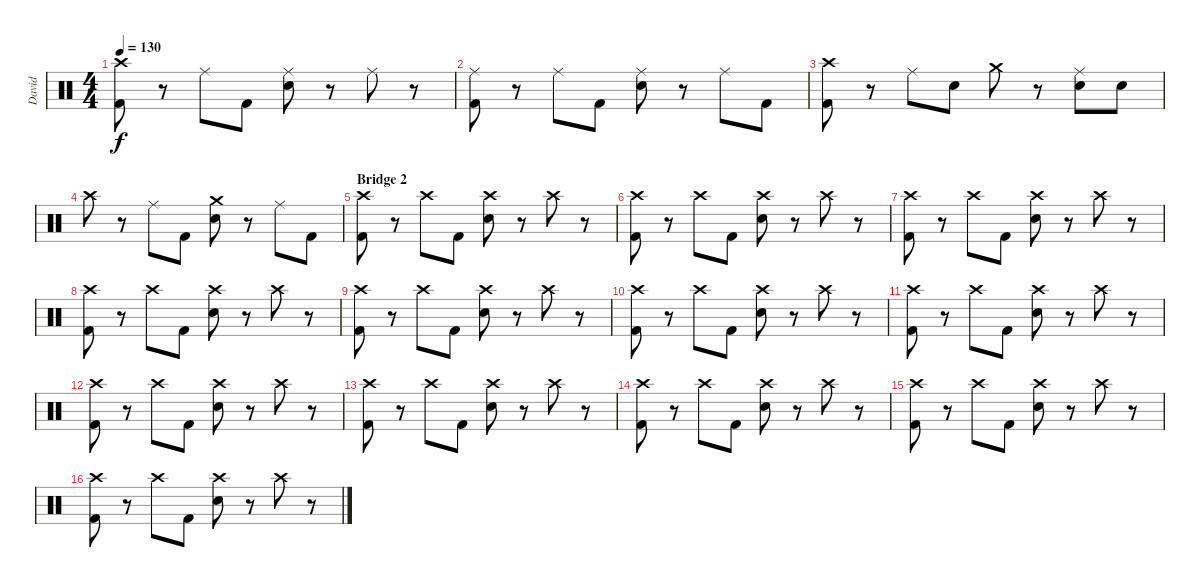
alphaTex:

\track ("David" "David") {instrument percussion}
\staff {score}
\articulation defaults
\ts (4 4)
\tempo 130
\clef neutral
\ks c
("Crash high (hit)" "Kick (hit) 2").8{dy f} r.8 "Ride (middle)".8 "Kick (hit) 2".8 ("Ride (middle)" "Snare (hit) 2").8 r.8 "Ride (middle)".8 r.8 |
("Ride (middle)" "Kick (hit) 2").8 r.8 "Ride (middle)".8 "Kick (hit) 2".8 ("Ride (middle)" "Snare (hit) 2").8 r.8 "Ride (middle)".8 "Kick (hit) 2".8 |
("Crash high (hit)" "Kick (hit) 2").8 r.8 "Ride (middle)".8 "Snare (hit) 2".8 "Crash medium (hit)".8 r.8 ("Ride (middle)" "Snare (hit) 2").8 "Snare (hit) 2".8 |
"Crash high (hit)".8 r.8 "Ride (middle)".8 "Kick (hit) 2".8 ("Crash medium (hit)" "Snare (hit) 2").8 r.8 "Ride (middle)".8 "Kick (hit) 2".8 |
\section ("" "Bridge 2")
("Crash high (hit)" "Kick (hit) 2").8 r.8 "Crash high (hit)".8 "Kick (hit) 2".8 ("Crash high (hit)" "Snare (hit) 2").8 r.8 "Crash high (hit)".8 r.8 |
("Crash high (hit)" "Kick (hit) 2").8 r.8 "Crash high (hit)".8 "Kick (hit) 2".8 ("Crash high (hit)" "Snare (hit) 2").8 r.8 "Crash high (hit)".8 r.8 |
("Crash high (hit)" "Kick (hit) 2").8 r.8 "Crash high (hit)".8 "Kick (hit) 2".8 ("Crash high (hit)" "Snare (hit) 2").8 r.8 "Crash high (hit)".8 r.8 |
("Crash high (hit)" "Kick (hit) 2").8 r.8 "Crash high (hit)".8 "Kick (hit) 2".8 ("Crash high (hit)" "Snare (hit) 2").8 r.8 "Crash high (hit)".8 r.8 |
("Crash high (hit)" "Kick (hit) 2").8 r.8 "Crash high (hit)".8 "Kick (hit) 2".8 ("Crash high (hit)" "Snare (hit) 2").8 r.8 "Crash high (hit)".8 r.8 |
("Crash high (hit)" "Kick (hit) 2").8 r.8 "Crash high (hit)".8 "Kick (hit) 2".8 ("Crash high (hit)" "Snare (hit) 2").8 r.8 "Crash high (hit)".8 r.8 |
("Crash high (hit)" "Kick (hit) 2").8 r.8 "Crash high (hit)".8 "Kick (hit) 2".8 ("Crash high (hit)" "Snare (hit) 2").8 r.8 "Crash high (hit)".8 r.8 |
("Crash high (hit)" "Kick (hit) 2").8 r.8 "Crash high (hit)".8 "Kick (hit) 2".8 ("Crash high (hit)" "Snare (hit) 2").8 r.8 "Crash high (hit)".8 r.8 |
("Crash high (hit)" "Kick (hit) 2").8 r.8 "Crash high (hit)".8 "Kick (hit) 2".8 ("Crash high (hit)" "Snare (hit) 2").8 r.8 "Crash high (hit)".8 r.8 |
("Crash high (hit)" "Kick (hit) 2").8 r.8 "Crash high (hit)".8 "Kick (hit) 2".8 ("Crash high (hit)" "Snare (hit) 2").8 r.8 "Crash high (hit)".8 r.8 |
("Crash high (hit)" "Kick (hit) 2").8 r.8 "Crash high (hit)".8 "Kick (hit) 2".8 ("Crash high (hit)" "Snare (hit) 2").8 r.8 "Crash high (hit)".8 r.8 |
("Crash high (hit)" "Kick (hit) 2").8 r.8 "Crash high (hit)".8 "Kick (hit) 2".8 ("Crash high (hit)" "Snare (hit) 2").8 r.8 "Crash high (hit)".8 r.8
